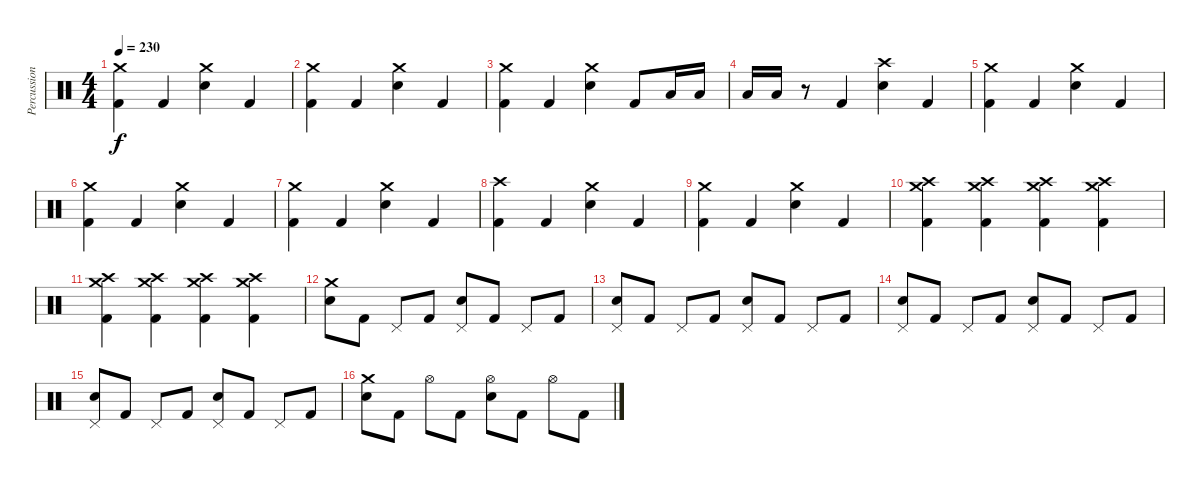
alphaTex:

\track ("Percussions" "Percussion") {instrument percussion}
\staff {score}
\articulation defaults
\ts (4 4)
\tempo 230
\clef neutral
\ks c
("Kick (hit) 2" "Crash medium (hit)").4{dy f} "Kick (hit) 2".4 ("Electric Snare (hit)" "Crash medium (hit)").4 "Kick (hit) 2".4 |
("Kick (hit) 2" "Crash medium (hit)").4 "Kick (hit) 2".4 ("Electric Snare (hit)" "Crash medium (hit)").4 "Kick (hit) 2".4 |
("Kick (hit) 2" "Crash medium (hit)").4 "Kick (hit) 2".4 ("Electric Snare (hit)" "Crash medium (hit)").4 "Kick (hit) 2".8 "Low Tom (hit)".16 "Low Tom (hit)".16 |
"Low Tom (hit)".16 "Low Tom (hit)".16 r.8 "Kick (hit) 2".4 ("Electric Snare (hit)" "Crash high (hit)").4 "Kick (hit) 2".4 |
("Kick (hit) 2" "Crash medium (hit)").4 "Kick (hit) 2".4 ("Electric Snare (hit)" "Crash medium (hit)").4 "Kick (hit) 2".4 |
("Kick (hit) 2" "Crash medium (hit)").4 "Kick (hit) 2".4 ("Electric Snare (hit)" "Crash medium (hit)").4 "Kick (hit) 2".4 |
("Kick (hit) 2" "Crash medium (hit)").4 "Kick (hit) 2".4 ("Electric Snare (hit)" "Crash medium (hit)").4 "Kick (hit) 2".4 |
("Kick (hit) 2" "Crash high (hit)").4 "Kick (hit) 2".4 ("Electric Snare (hit)" "Crash medium (hit)").4 "Kick (hit) 2".4 |
("Kick (hit) 2" "Crash medium (hit)").4 "Kick (hit) 2".4 ("Electric Snare (hit)" "Crash medium (hit)").4 "Kick (hit) 2".4 |
("Kick (hit) 2" "Crash medium (hit)" "Crash high (hit)").4 ("Kick (hit) 2" "Crash medium (hit)" "Crash high (hit)").4 ("Kick (hit) 2" "Crash medium (hit)" "Crash high (hit)").4 ("Kick (hit) 2" "Crash medium (hit)" "Crash high (hit)").4 |
("Kick (hit) 2" "Crash medium (hit)" "Crash high (hit)").4 ("Kick (hit) 2" "Crash medium (hit)" "Crash high (hit)").4 ("Kick (hit) 2" "Crash medium (hit)" "Crash high (hit)").4 ("Kick (hit) 2" "Crash medium (hit)" "Crash high (hit)").4 |
("Electric Snare (hit)" "Crash medium (hit)").8 "Kick (hit) 2".8 "Pedal Hi-Hat (hit)".8 "Kick (hit) 2".8 ("Electric Snare (hit)" "Pedal Hi-Hat (hit)").8 "Kick (hit) 2".8 "Pedal Hi-Hat (hit)".8 "Kick (hit) 2".8 |
("Electric Snare (hit)" "Pedal Hi-Hat (hit)").8 "Kick (hit) 2".8 "Pedal Hi-Hat (hit)".8 "Kick (hit) 2".8 ("Electric Snare (hit)" "Pedal Hi-Hat (hit)").8 "Kick (hit) 2".8 "Pedal Hi-Hat (hit)".8 "Kick (hit) 2".8 |
("Electric Snare (hit)" "Pedal Hi-Hat (hit)").8 "Kick (hit) 2".8 "Pedal Hi-Hat (hit)".8 "Kick (hit) 2".8 ("Electric Snare (hit)" "Pedal Hi-Hat (hit)").8 "Kick (hit) 2".8 "Pedal Hi-Hat (hit)".8 "Kick (hit) 2".8 |
("Electric Snare (hit)" "Pedal Hi-Hat (hit)").8 "Kick (hit) 2".8 "Pedal Hi-Hat (hit)".8 "Kick (hit) 2".8 ("Electric Snare (hit)" "Pedal Hi-Hat (hit)").8 "Kick (hit) 2".8 "Pedal Hi-Hat (hit)".8 "Kick (hit) 2".8 |
("Electric Snare (hit)" "Crash medium (hit)").8 "Kick (hit) 2".8 "Hi-Hat (open)".8 "Kick (hit) 2".8 ("Electric Snare (hit)" "Hi-Hat (open)").8 "Kick (hit) 2".8 "Hi-Hat (open)".8 "Kick (hit) 2".8
